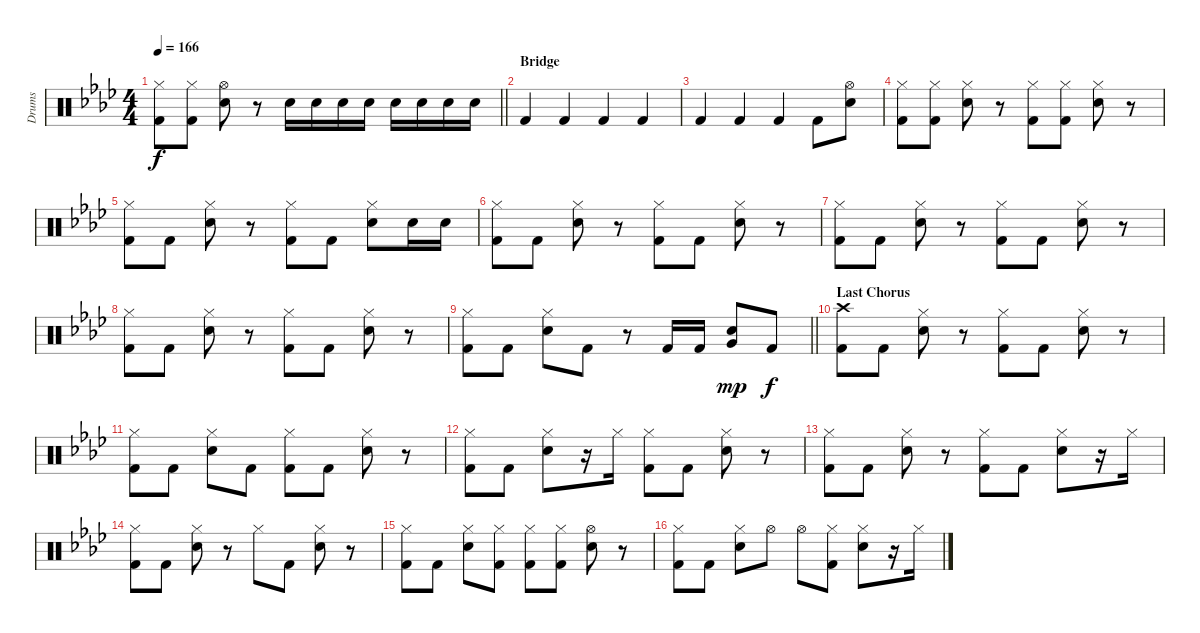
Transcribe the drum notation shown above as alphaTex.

\track ("Drums" "Drums") {instrument percussion}
\staff {score}
\articulation defaults
\ts (4 4)
\tempo 166
\clef neutral
\barLineRight lightlight
\ks ab
("Hi-Hat (closed)" "Kick (hit) 2").8{dy f} ("Hi-Hat (closed)" "Kick (hit) 2").8 ("Hi-Hat (open)" "Electric Snare (hit)").8 r.8 "Electric Snare (hit)".16 "Electric Snare (hit)".16 "Electric Snare (hit)".16 "Electric Snare (hit)".16 "Electric Snare (hit)".16 "Electric Snare (hit)".16 "Electric Snare (hit)".16 "Electric Snare (hit)".16 |
\section ("" "Bridge")
"Kick (hit) 2".4 "Kick (hit) 2".4 "Kick (hit) 2".4 "Kick (hit) 2".4 |
"Kick (hit) 2".4 "Kick (hit) 2".4 "Kick (hit) 2".4 "Kick (hit) 2".8 ("Hi-Hat (open)" "Electric Snare (hit)").8 |
("Hi-Hat (closed)" "Kick (hit) 2").8 ("Hi-Hat (closed)" "Kick (hit) 2").8 ("Hi-Hat (closed)" "Electric Snare (hit)").8 r.8 ("Hi-Hat (closed)" "Kick (hit) 2").8 ("Hi-Hat (closed)" "Kick (hit) 2").8 ("Hi-Hat (closed)" "Electric Snare (hit)").8 r.8 |
("Hi-Hat (closed)" "Kick (hit) 2").8 "Kick (hit) 2".8 ("Hi-Hat (closed)" "Electric Snare (hit)").8 r.8 ("Hi-Hat (closed)" "Kick (hit) 2").8 "Kick (hit) 2".8 ("Hi-Hat (closed)" "Electric Snare (hit)").8 "Electric Snare (hit)".16 "Electric Snare (hit)".16 |
("Hi-Hat (closed)" "Kick (hit) 2").8 "Kick (hit) 2".8 ("Hi-Hat (closed)" "Electric Snare (hit)").8 r.8 ("Hi-Hat (closed)" "Kick (hit) 2").8 "Kick (hit) 2".8 ("Hi-Hat (closed)" "Electric Snare (hit)").8 r.8 |
("Hi-Hat (closed)" "Kick (hit) 2").8 "Kick (hit) 2".8 ("Hi-Hat (closed)" "Electric Snare (hit)").8 r.8 ("Hi-Hat (closed)" "Kick (hit) 2").8 "Kick (hit) 2".8 ("Hi-Hat (closed)" "Electric Snare (hit)").8 r.8 |
("Hi-Hat (closed)" "Kick (hit) 2").8 "Kick (hit) 2".8 ("Hi-Hat (closed)" "Electric Snare (hit)").8 r.8 ("Hi-Hat (closed)" "Kick (hit) 2").8 "Kick (hit) 2".8 ("Hi-Hat (closed)" "Electric Snare (hit)").8 r.8 |
\barLineRight lightlight
("Hi-Hat (closed)" "Kick (hit) 2").8 "Kick (hit) 2".8 ("Hi-Hat (closed)" "Electric Snare (hit)").8 "Kick (hit) 2".8 r.8 "Kick (hit) 2".16 "Kick (hit) 2".16 ("Electric Snare (hit)" "Very Low Tom (hit)").8{dy mp} "Kick (hit) 2".8{dy f} |
\section ("" "Last Chorus")
("Crash high (hit)" "Kick (hit) 2").8 "Kick (hit) 2".8 ("Hi-Hat (closed)" "Electric Snare (hit)").8 r.8 ("Hi-Hat (closed)" "Kick (hit) 2").8 "Kick (hit) 2".8 ("Hi-Hat (closed)" "Electric Snare (hit)").8 r.8 |
("Hi-Hat (closed)" "Kick (hit) 2").8 "Kick (hit) 2".8 ("Hi-Hat (closed)" "Electric Snare (hit)").8 "Kick (hit) 2".8 ("Hi-Hat (closed)" "Kick (hit) 2").8 "Kick (hit) 2".8 ("Hi-Hat (closed)" "Electric Snare (hit)").8 r.8 |
("Hi-Hat (closed)" "Kick (hit) 2").8 "Kick (hit) 2".8 ("Hi-Hat (closed)" "Electric Snare (hit)").8 r.16 "Hi-Hat (closed)".16 ("Hi-Hat (closed)" "Kick (hit) 2").8 "Kick (hit) 2".8 ("Hi-Hat (closed)" "Electric Snare (hit)").8 r.8 |
("Hi-Hat (closed)" "Kick (hit) 2").8 "Kick (hit) 2".8 ("Hi-Hat (closed)" "Electric Snare (hit)").8 r.8 ("Hi-Hat (closed)" "Kick (hit) 2").8 "Kick (hit) 2".8 ("Hi-Hat (closed)" "Electric Snare (hit)").8 r.16 "Hi-Hat (closed)".16 |
("Hi-Hat (closed)" "Kick (hit) 2").8 "Kick (hit) 2".8 ("Hi-Hat (closed)" "Electric Snare (hit)").8 r.8 "Hi-Hat (closed)".8 "Kick (hit) 2".8 ("Hi-Hat (closed)" "Electric Snare (hit)").8 r.8 |
("Hi-Hat (closed)" "Kick (hit) 2").8 "Kick (hit) 2".8 ("Hi-Hat (closed)" "Electric Snare (hit)").8 ("Hi-Hat (closed)" "Kick (hit) 2").8 ("Hi-Hat (closed)" "Kick (hit) 2").8 ("Hi-Hat (closed)" "Kick (hit) 2").8 ("Hi-Hat (open)" "Electric Snare (hit)").8 r.8 |
("Hi-Hat (closed)" "Kick (hit) 2").8 "Kick (hit) 2".8 ("Hi-Hat (closed)" "Electric Snare (hit)").8 "Hi-Hat (open)".8 "Hi-Hat (open)".8 ("Hi-Hat (closed)" "Kick (hit) 2").8 ("Hi-Hat (closed)" "Electric Snare (hit)").8 r.16 "Hi-Hat (closed)".16
